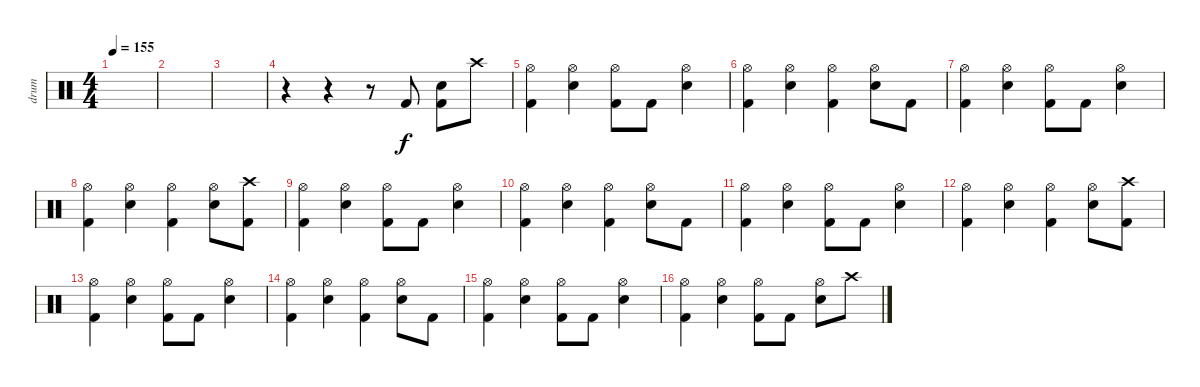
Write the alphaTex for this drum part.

\track ("drum" "drum") {instrument percussion}
\staff {score}
\articulation defaults
\ts (4 4)
\tempo 155
\clef neutral
\ks c
|
|
|
r.4 r.4 r.8 "Kick (hit) 2".8 ("Snare (hit) 2" "Kick (hit) 2").8 "Crash high (hit)".8 |
("Hi-Hat (open)" "Kick (hit) 2").4 ("Hi-Hat (open)" "Snare (hit) 2").4 ("Hi-Hat (open)" "Kick (hit) 2").8 "Kick (hit) 2".8 ("Hi-Hat (open)" "Snare (hit) 2").4 |
("Hi-Hat (open)" "Kick (hit) 2").4 ("Hi-Hat (open)" "Snare (hit) 2").4 ("Hi-Hat (open)" "Kick (hit) 2").4 ("Hi-Hat (open)" "Snare (hit) 2").8 "Kick (hit) 2".8 |
("Hi-Hat (open)" "Kick (hit) 2").4 ("Hi-Hat (open)" "Snare (hit) 2").4 ("Hi-Hat (open)" "Kick (hit) 2").8 "Kick (hit) 2".8 ("Hi-Hat (open)" "Snare (hit) 2").4 |
("Hi-Hat (open)" "Kick (hit) 2").4 ("Hi-Hat (open)" "Snare (hit) 2").4 ("Hi-Hat (open)" "Kick (hit) 2").4 ("Hi-Hat (open)" "Snare (hit) 2").8 ("Crash high (hit)" "Kick (hit) 2").8 |
("Hi-Hat (open)" "Kick (hit) 2").4 ("Hi-Hat (open)" "Snare (hit) 2").4 ("Hi-Hat (open)" "Kick (hit) 2").8 "Kick (hit) 2".8 ("Hi-Hat (open)" "Snare (hit) 2").4 |
("Hi-Hat (open)" "Kick (hit) 2").4 ("Hi-Hat (open)" "Snare (hit) 2").4 ("Hi-Hat (open)" "Kick (hit) 2").4 ("Hi-Hat (open)" "Snare (hit) 2").8 "Kick (hit) 2".8 |
("Hi-Hat (open)" "Kick (hit) 2").4 ("Hi-Hat (open)" "Snare (hit) 2").4 ("Hi-Hat (open)" "Kick (hit) 2").8 "Kick (hit) 2".8 ("Hi-Hat (open)" "Snare (hit) 2").4 |
("Hi-Hat (open)" "Kick (hit) 2").4 ("Hi-Hat (open)" "Snare (hit) 2").4 ("Hi-Hat (open)" "Kick (hit) 2").4 ("Hi-Hat (open)" "Snare (hit) 2").8 ("Crash high (hit)" "Kick (hit) 2").8 |
("Hi-Hat (open)" "Kick (hit) 2").4 ("Hi-Hat (open)" "Snare (hit) 2").4 ("Hi-Hat (open)" "Kick (hit) 2").8 "Kick (hit) 2".8 ("Hi-Hat (open)" "Snare (hit) 2").4 |
("Hi-Hat (open)" "Kick (hit) 2").4 ("Hi-Hat (open)" "Snare (hit) 2").4 ("Hi-Hat (open)" "Kick (hit) 2").4 ("Hi-Hat (open)" "Snare (hit) 2").8 "Kick (hit) 2".8 |
("Hi-Hat (open)" "Kick (hit) 2").4 ("Hi-Hat (open)" "Snare (hit) 2").4 ("Hi-Hat (open)" "Kick (hit) 2").8 "Kick (hit) 2".8 ("Hi-Hat (open)" "Snare (hit) 2").4 |
("Hi-Hat (open)" "Kick (hit) 2").4 ("Hi-Hat (open)" "Snare (hit) 2").4 ("Hi-Hat (open)" "Kick (hit) 2").8 "Kick (hit) 2".8 ("Hi-Hat (open)" "Snare (hit) 2").8 "Crash high (hit)".8
